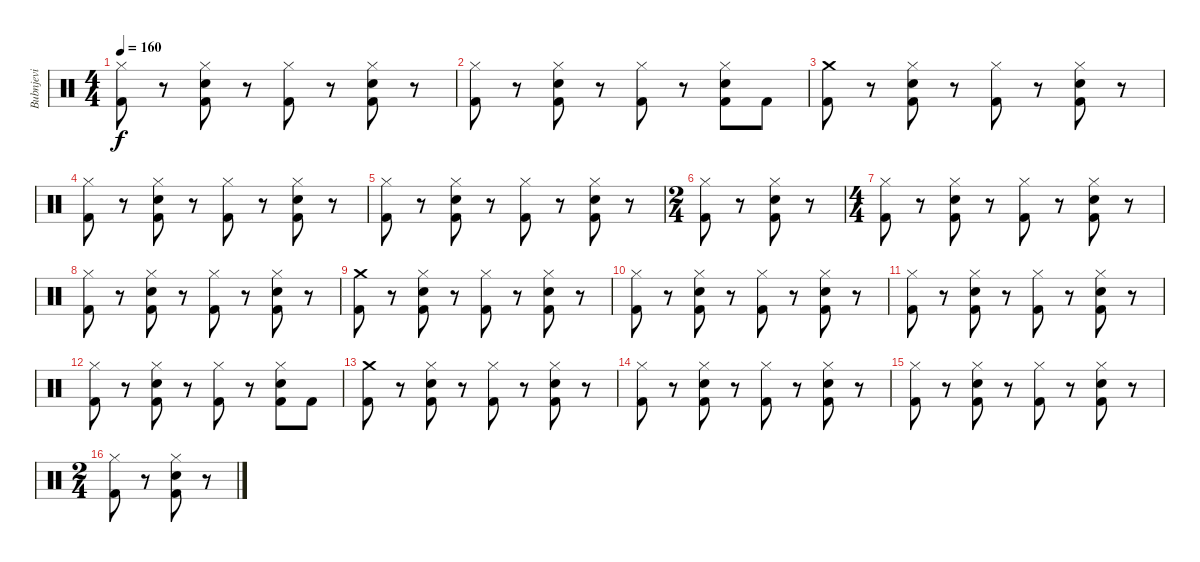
\track ("Bubnjevi" "Bubnjevi") {instrument percussion}
\staff {score}
\articulation defaults
\ts (4 4)
\tempo 160
\clef neutral
\ks c
("Hi-Hat (closed)" "Kick (hit) 2").8{dy f} r.8 ("Electric Snare (hit)" "Hi-Hat (closed)" "Kick (hit) 2").8 r.8 ("Hi-Hat (closed)" "Kick (hit) 2").8 r.8 ("Electric Snare (hit)" "Hi-Hat (closed)" "Kick (hit) 2").8 r.8 |
("Hi-Hat (closed)" "Kick (hit) 2").8 r.8 ("Electric Snare (hit)" "Hi-Hat (closed)" "Kick (hit) 2").8 r.8 ("Hi-Hat (closed)" "Kick (hit) 2").8 r.8 ("Electric Snare (hit)" "Hi-Hat (closed)" "Kick (hit) 2").8 "Kick (hit) 2".8 |
("Crash medium (hit)" "Kick (hit) 2").8 r.8 ("Electric Snare (hit)" "Hi-Hat (closed)" "Kick (hit) 2").8 r.8 ("Hi-Hat (closed)" "Kick (hit) 2").8 r.8 ("Electric Snare (hit)" "Hi-Hat (closed)" "Kick (hit) 2").8 r.8 |
("Hi-Hat (closed)" "Kick (hit) 2").8 r.8 ("Electric Snare (hit)" "Hi-Hat (closed)" "Kick (hit) 2").8 r.8 ("Hi-Hat (closed)" "Kick (hit) 2").8 r.8 ("Electric Snare (hit)" "Hi-Hat (closed)" "Kick (hit) 2").8 r.8 |
("Hi-Hat (closed)" "Kick (hit) 2").8 r.8 ("Electric Snare (hit)" "Hi-Hat (closed)" "Kick (hit) 2").8 r.8 ("Hi-Hat (closed)" "Kick (hit) 2").8 r.8 ("Electric Snare (hit)" "Hi-Hat (closed)" "Kick (hit) 2").8 r.8 |
\ts (2 4)
("Hi-Hat (closed)" "Kick (hit) 2").8 r.8 ("Electric Snare (hit)" "Hi-Hat (closed)" "Kick (hit) 2").8 r.8 |
\ts (4 4)
("Hi-Hat (closed)" "Kick (hit) 2").8 r.8 ("Electric Snare (hit)" "Hi-Hat (closed)" "Kick (hit) 2").8 r.8 ("Hi-Hat (closed)" "Kick (hit) 2").8 r.8 ("Electric Snare (hit)" "Hi-Hat (closed)" "Kick (hit) 2").8 r.8 |
("Hi-Hat (closed)" "Kick (hit) 2").8 r.8 ("Electric Snare (hit)" "Hi-Hat (closed)" "Kick (hit) 2").8 r.8 ("Hi-Hat (closed)" "Kick (hit) 2").8 r.8 ("Electric Snare (hit)" "Hi-Hat (closed)" "Kick (hit) 2").8 r.8 |
("Crash medium (hit)" "Kick (hit) 2").8 r.8 ("Electric Snare (hit)" "Hi-Hat (closed)" "Kick (hit) 2").8 r.8 ("Hi-Hat (closed)" "Kick (hit) 2").8 r.8 ("Electric Snare (hit)" "Hi-Hat (closed)" "Kick (hit) 2").8 r.8 |
("Hi-Hat (closed)" "Kick (hit) 2").8 r.8 ("Electric Snare (hit)" "Hi-Hat (closed)" "Kick (hit) 2").8 r.8 ("Hi-Hat (closed)" "Kick (hit) 2").8 r.8 ("Electric Snare (hit)" "Hi-Hat (closed)" "Kick (hit) 2").8 r.8 |
("Hi-Hat (closed)" "Kick (hit) 2").8 r.8 ("Electric Snare (hit)" "Hi-Hat (closed)" "Kick (hit) 2").8 r.8 ("Hi-Hat (closed)" "Kick (hit) 2").8 r.8 ("Electric Snare (hit)" "Hi-Hat (closed)" "Kick (hit) 2").8 r.8 |
("Hi-Hat (closed)" "Kick (hit) 2").8 r.8 ("Electric Snare (hit)" "Hi-Hat (closed)" "Kick (hit) 2").8 r.8 ("Hi-Hat (closed)" "Kick (hit) 2").8 r.8 ("Electric Snare (hit)" "Hi-Hat (closed)" "Kick (hit) 2").8 "Kick (hit) 2".8 |
("Crash medium (hit)" "Kick (hit) 2").8 r.8 ("Electric Snare (hit)" "Hi-Hat (closed)" "Kick (hit) 2").8 r.8 ("Hi-Hat (closed)" "Kick (hit) 2").8 r.8 ("Electric Snare (hit)" "Hi-Hat (closed)" "Kick (hit) 2").8 r.8 |
("Hi-Hat (closed)" "Kick (hit) 2").8 r.8 ("Electric Snare (hit)" "Hi-Hat (closed)" "Kick (hit) 2").8 r.8 ("Hi-Hat (closed)" "Kick (hit) 2").8 r.8 ("Electric Snare (hit)" "Hi-Hat (closed)" "Kick (hit) 2").8 r.8 |
("Hi-Hat (closed)" "Kick (hit) 2").8 r.8 ("Electric Snare (hit)" "Hi-Hat (closed)" "Kick (hit) 2").8 r.8 ("Hi-Hat (closed)" "Kick (hit) 2").8 r.8 ("Electric Snare (hit)" "Hi-Hat (closed)" "Kick (hit) 2").8 r.8 |
\ts (2 4)
("Hi-Hat (closed)" "Kick (hit) 2").8 r.8 ("Electric Snare (hit)" "Hi-Hat (closed)" "Kick (hit) 2").8 r.8
